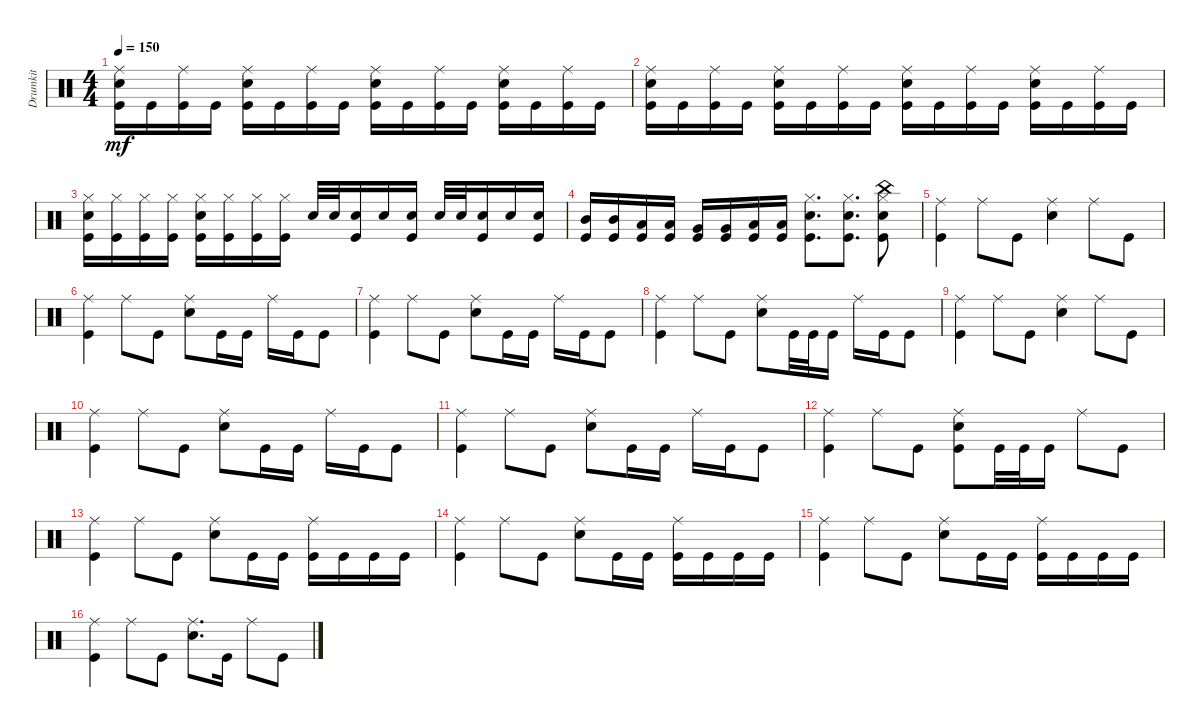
\track ("Drumkit" "Drumkit") {instrument percussion}
\staff {score}
\articulation defaults
\ts (4 4)
\tempo 150
\clef neutral
\ks c
("Kick (hit)" "Snare (hit) 2" "Ride (middle)").16{dy mf} "Kick (hit)".16 ("Kick (hit)" "Ride (middle)").16 "Kick (hit)".16 ("Kick (hit)" "Snare (hit) 2" "Ride (middle)").16 "Kick (hit)".16 ("Kick (hit)" "Ride (middle)").16 "Kick (hit)".16 ("Kick (hit)" "Snare (hit) 2" "Ride (middle)").16 "Kick (hit)".16 ("Kick (hit)" "Ride (middle)").16 "Kick (hit)".16 ("Kick (hit)" "Snare (hit) 2" "Ride (middle)").16 "Kick (hit)".16 ("Kick (hit)" "Ride (middle)").16 "Kick (hit)".16 |
("Kick (hit)" "Snare (hit) 2" "Ride (middle)").16 "Kick (hit)".16 ("Kick (hit)" "Ride (middle)").16 "Kick (hit)".16 ("Kick (hit)" "Snare (hit) 2" "Ride (middle)").16 "Kick (hit)".16 ("Kick (hit)" "Ride (middle)").16 "Kick (hit)".16 ("Kick (hit)" "Snare (hit) 2" "Ride (middle)").16 "Kick (hit)".16 ("Kick (hit)" "Ride (middle)").16 "Kick (hit)".16 ("Kick (hit)" "Snare (hit) 2" "Ride (middle)").16 "Kick (hit)".16 ("Kick (hit)" "Ride (middle)").16 "Kick (hit)".16 |
("Kick (hit)" "Snare (hit) 2" "Hi-Hat (closed)").16 ("Kick (hit)" "Hi-Hat (closed)").16 ("Kick (hit)" "Hi-Hat (closed)").16 ("Kick (hit)" "Hi-Hat (closed)").16 ("Kick (hit)" "Snare (hit) 2" "Hi-Hat (closed)").16 ("Kick (hit)" "Hi-Hat (closed)").16 ("Kick (hit)" "Hi-Hat (closed)").16 ("Hi-Hat (closed)" "Kick (hit)").16 "Snare (hit) 2".32 "Snare (hit) 2".32 ("Snare (hit) 2" "Kick (hit)").16 "Snare (hit) 2".16 ("Snare (hit) 2" "Kick (hit)").16 "Snare (hit) 2".32 "Snare (hit) 2".32 ("Snare (hit) 2" "Kick (hit)").16 "Snare (hit) 2".16 ("Snare (hit) 2" "Kick (hit)").16 |
("Kick (hit)" "Mid Tom (hit)").16 ("Kick (hit)" "Mid Tom (hit)").16 ("Kick (hit)" "Low Tom (hit)").16 ("Kick (hit)" "Low Tom (hit)").16 ("Kick (hit)" "Very Low Tom (hit)").16 ("Kick (hit)" "Very Low Tom (hit)").16 ("Kick (hit)" "Low Floor Tom (hit)").16 ("Kick (hit)" "Low Floor Tom (hit)").16 ("Kick (hit)" "Snare (hit) 2" "Hi-Hat (closed)").8{d} ("Kick (hit)" "Hi-Hat (closed)" "Snare (hit) 2").8{d} ("Kick (hit)" "Hi-Hat (closed)" "Snare (hit) 2" "China (hit)").8 |
("Ride (middle)" "Kick (hit)").4 "Ride (middle)".8 "Kick (hit)".8 ("Ride (middle)" "Snare (hit) 2").4 "Ride (middle)".8 "Kick (hit)".8 |
("Ride (middle)" "Kick (hit)").4 "Ride (middle)".8 "Kick (hit)".8 ("Ride (middle)" "Snare (hit) 2").8 "Kick (hit)".16 "Kick (hit)".16 "Ride (middle)".16 "Kick (hit)".16 "Kick (hit)".8 |
("Ride (middle)" "Kick (hit)").4 "Ride (middle)".8 "Kick (hit)".8 ("Ride (middle)" "Snare (hit) 2").8 "Kick (hit)".16 "Kick (hit)".16 "Ride (middle)".16 "Kick (hit)".16 "Kick (hit)".8 |
("Ride (middle)" "Kick (hit)").4 "Ride (middle)".8 "Kick (hit)".8 ("Ride (middle)" "Snare (hit) 2").8 "Kick (hit)".32 "Kick (hit)".32 "Kick (hit)".16 "Ride (middle)".16 "Kick (hit)".16 "Kick (hit)".8 |
("Ride (middle)" "Kick (hit)").4 "Ride (middle)".8 "Kick (hit)".8 ("Ride (middle)" "Snare (hit) 2").4 "Ride (middle)".8 "Kick (hit)".8 |
("Ride (middle)" "Kick (hit)").4 "Ride (middle)".8 "Kick (hit)".8 ("Ride (middle)" "Snare (hit) 2").8 "Kick (hit)".16 "Kick (hit)".16 "Ride (middle)".16 "Kick (hit)".16 "Kick (hit)".8 |
("Ride (middle)" "Kick (hit)").4 "Ride (middle)".8 "Kick (hit)".8 ("Ride (middle)" "Snare (hit) 2").8 "Kick (hit)".16 "Kick (hit)".16 "Ride (middle)".16 "Kick (hit)".16 "Kick (hit)".8 |
("Ride (middle)" "Kick (hit)").4 "Ride (middle)".8 "Kick (hit)".8 ("Ride (middle)" "Snare (hit) 2" "Kick (hit)").8 "Kick (hit)".32 "Kick (hit)".32 "Kick (hit)".16 "Ride (middle)".8 "Kick (hit)".8 |
("Ride (middle)" "Kick (hit)").4 "Ride (middle)".8 "Kick (hit)".8 ("Ride (middle)" "Snare (hit) 2").8 "Kick (hit)".16 "Kick (hit)".16 ("Ride (middle)" "Kick (hit)").16 "Kick (hit)".16 "Kick (hit)".16 "Kick (hit)".16 |
("Ride (middle)" "Kick (hit)").4 "Ride (middle)".8 "Kick (hit)".8 ("Ride (middle)" "Snare (hit) 2").8 "Kick (hit)".16 "Kick (hit)".16 ("Ride (middle)" "Kick (hit)").16 "Kick (hit)".16 "Kick (hit)".16 "Kick (hit)".16 |
("Ride (middle)" "Kick (hit)").4 "Ride (middle)".8 "Kick (hit)".8 ("Ride (middle)" "Snare (hit) 2").8 "Kick (hit)".16 "Kick (hit)".16 ("Ride (middle)" "Kick (hit)").16 "Kick (hit)".16 "Kick (hit)".16 "Kick (hit)".16 |
("Ride (middle)" "Kick (hit)").4 "Ride (middle)".8 "Kick (hit)".8 ("Ride (middle)" "Snare (hit) 2").8{d} "Kick (hit)".16 "Ride (middle)".8 "Kick (hit)".8
